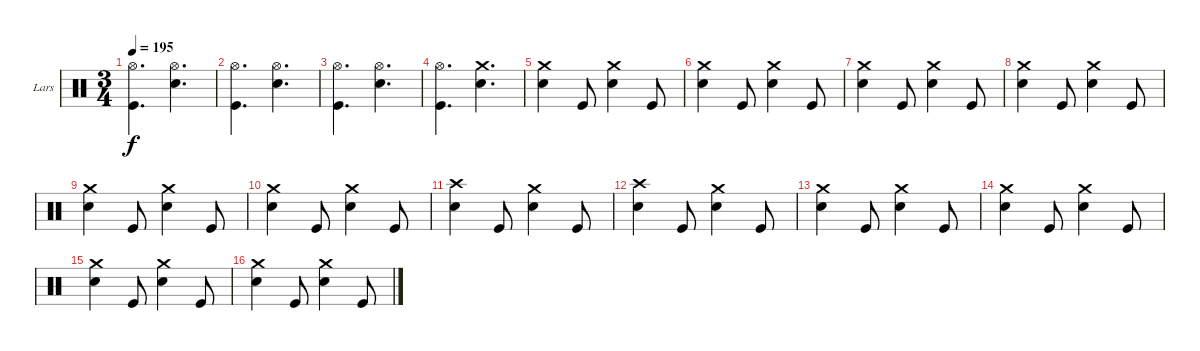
\bracketExtendMode groupsimilarinstruments
\firstSystemTrackNameOrientation horizontal
\otherSystemsTrackNameOrientation horizontal
\track ("Drumkit" "Lars") {instrument percussion}
\staff {score}
\articulation defaults
\ts (3 4)
\tempo 195
\clef neutral
\ks c
("Hi-Hat (open)" "Kick (hit)").4{d dy f} ("Hi-Hat (open)" "Snare (hit) 2").4{d} |
("Hi-Hat (open)" "Kick (hit)").4{d} ("Hi-Hat (open)" "Snare (hit) 2").4{d} |
("Hi-Hat (open)" "Kick (hit)").4{d} ("Hi-Hat (open)" "Snare (hit) 2").4{d} |
("Hi-Hat (open)" "Kick (hit)").4{d} ("Crash medium (hit)" "Snare (hit) 2").4{d} |
("Crash medium (hit)" "Snare (hit) 2").4 "Kick (hit)".8 ("Crash medium (hit)" "Snare (hit) 2").4 "Kick (hit)".8 |
("Crash medium (hit)" "Snare (hit) 2").4 "Kick (hit)".8 ("Crash medium (hit)" "Snare (hit) 2").4 "Kick (hit)".8 |
("Crash medium (hit)" "Snare (hit) 2").4 "Kick (hit)".8 ("Crash medium (hit)" "Snare (hit) 2").4 "Kick (hit)".8 |
("Crash medium (hit)" "Snare (hit) 2").4 "Kick (hit)".8 ("Crash medium (hit)" "Snare (hit) 2").4 "Kick (hit)".8 |
("Crash medium (hit)" "Snare (hit) 2").4 "Kick (hit)".8 ("Crash medium (hit)" "Snare (hit) 2").4 "Kick (hit)".8 |
("Crash medium (hit)" "Snare (hit) 2").4 "Kick (hit)".8 ("Crash medium (hit)" "Snare (hit) 2").4 "Kick (hit)".8 |
("Crash high (hit)" "Snare (hit) 2").4 "Kick (hit)".8 ("Crash medium (hit)" "Snare (hit) 2").4 "Kick (hit)".8 |
("Crash high (hit)" "Snare (hit) 2").4 "Kick (hit)".8 ("Crash medium (hit)" "Snare (hit) 2").4 "Kick (hit)".8 |
("Crash medium (hit)" "Snare (hit) 2").4 "Kick (hit)".8 ("Crash medium (hit)" "Snare (hit) 2").4 "Kick (hit)".8 |
("Crash medium (hit)" "Snare (hit) 2").4 "Kick (hit)".8 ("Crash medium (hit)" "Snare (hit) 2").4 "Kick (hit)".8 |
("Crash medium (hit)" "Snare (hit) 2").4 "Kick (hit)".8 ("Crash medium (hit)" "Snare (hit) 2").4 "Kick (hit)".8 |
("Crash medium (hit)" "Snare (hit) 2").4 "Kick (hit)".8 ("Crash medium (hit)" "Snare (hit) 2").4 "Kick (hit)".8
